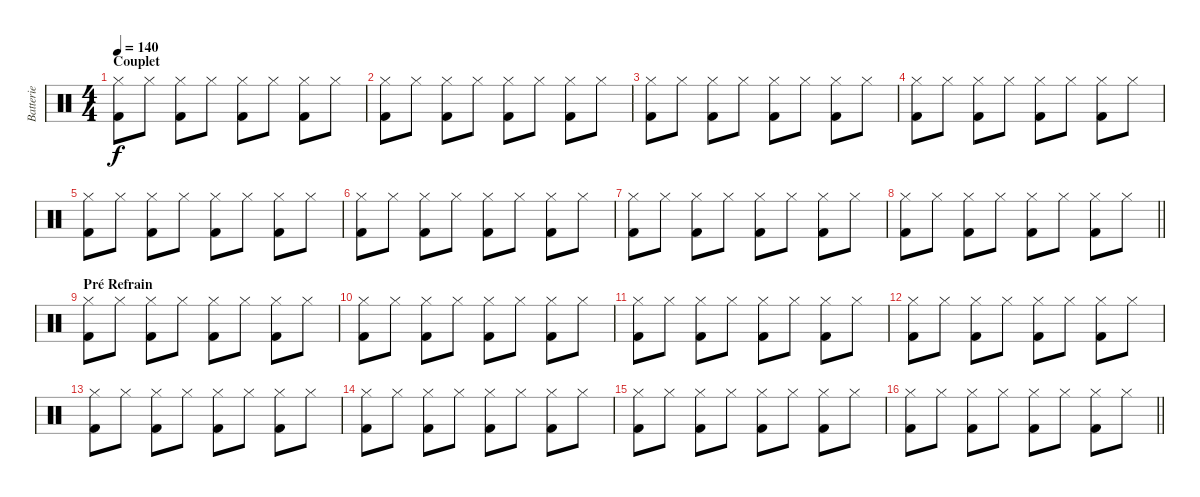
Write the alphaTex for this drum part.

\track ("Batterie" "Batterie") {instrument percussion}
\staff {score}
\articulation defaults
\ts (4 4)
\section ("" "Couplet")
\tempo 140
\clef neutral
\ks c
("Hi-Hat (closed)" "Kick (hit) 2").8{dy f} "Hi-Hat (closed)".8 ("Hi-Hat (closed)" "Kick (hit) 2").8 "Hi-Hat (closed)".8 ("Hi-Hat (closed)" "Kick (hit) 2").8 "Hi-Hat (closed)".8 ("Hi-Hat (closed)" "Kick (hit) 2").8 "Hi-Hat (closed)".8 |
("Hi-Hat (closed)" "Kick (hit) 2").8 "Hi-Hat (closed)".8 ("Hi-Hat (closed)" "Kick (hit) 2").8 "Hi-Hat (closed)".8 ("Hi-Hat (closed)" "Kick (hit) 2").8 "Hi-Hat (closed)".8 ("Hi-Hat (closed)" "Kick (hit) 2").8 "Hi-Hat (closed)".8 |
("Hi-Hat (closed)" "Kick (hit) 2").8 "Hi-Hat (closed)".8 ("Hi-Hat (closed)" "Kick (hit) 2").8 "Hi-Hat (closed)".8 ("Hi-Hat (closed)" "Kick (hit) 2").8 "Hi-Hat (closed)".8 ("Hi-Hat (closed)" "Kick (hit) 2").8 "Hi-Hat (closed)".8 |
("Hi-Hat (closed)" "Kick (hit) 2").8 "Hi-Hat (closed)".8 ("Hi-Hat (closed)" "Kick (hit) 2").8 "Hi-Hat (closed)".8 ("Hi-Hat (closed)" "Kick (hit) 2").8 "Hi-Hat (closed)".8 ("Hi-Hat (closed)" "Kick (hit) 2").8 "Hi-Hat (closed)".8 |
("Hi-Hat (closed)" "Kick (hit) 2").8 "Hi-Hat (closed)".8 ("Hi-Hat (closed)" "Kick (hit) 2").8 "Hi-Hat (closed)".8 ("Hi-Hat (closed)" "Kick (hit) 2").8 "Hi-Hat (closed)".8 ("Hi-Hat (closed)" "Kick (hit) 2").8 "Hi-Hat (closed)".8 |
("Hi-Hat (closed)" "Kick (hit) 2").8 "Hi-Hat (closed)".8 ("Hi-Hat (closed)" "Kick (hit) 2").8 "Hi-Hat (closed)".8 ("Hi-Hat (closed)" "Kick (hit) 2").8 "Hi-Hat (closed)".8 ("Hi-Hat (closed)" "Kick (hit) 2").8 "Hi-Hat (closed)".8 |
("Hi-Hat (closed)" "Kick (hit) 2").8 "Hi-Hat (closed)".8 ("Hi-Hat (closed)" "Kick (hit) 2").8 "Hi-Hat (closed)".8 ("Hi-Hat (closed)" "Kick (hit) 2").8 "Hi-Hat (closed)".8 ("Hi-Hat (closed)" "Kick (hit) 2").8 "Hi-Hat (closed)".8 |
\barLineRight lightlight
("Hi-Hat (closed)" "Kick (hit) 2").8 "Hi-Hat (closed)".8 ("Hi-Hat (closed)" "Kick (hit) 2").8 "Hi-Hat (closed)".8 ("Hi-Hat (closed)" "Kick (hit) 2").8 "Hi-Hat (closed)".8 ("Hi-Hat (closed)" "Kick (hit) 2").8 "Hi-Hat (closed)".8 |
\section ("" "Pré Refrain")
("Hi-Hat (closed)" "Kick (hit) 2").8 "Hi-Hat (closed)".8 ("Hi-Hat (closed)" "Kick (hit) 2").8 "Hi-Hat (closed)".8 ("Hi-Hat (closed)" "Kick (hit) 2").8 "Hi-Hat (closed)".8 ("Hi-Hat (closed)" "Kick (hit) 2").8 "Hi-Hat (closed)".8 |
("Hi-Hat (closed)" "Kick (hit) 2").8 "Hi-Hat (closed)".8 ("Hi-Hat (closed)" "Kick (hit) 2").8 "Hi-Hat (closed)".8 ("Hi-Hat (closed)" "Kick (hit) 2").8 "Hi-Hat (closed)".8 ("Hi-Hat (closed)" "Kick (hit) 2").8 "Hi-Hat (closed)".8 |
("Hi-Hat (closed)" "Kick (hit) 2").8 "Hi-Hat (closed)".8 ("Hi-Hat (closed)" "Kick (hit) 2").8 "Hi-Hat (closed)".8 ("Hi-Hat (closed)" "Kick (hit) 2").8 "Hi-Hat (closed)".8 ("Hi-Hat (closed)" "Kick (hit) 2").8 "Hi-Hat (closed)".8 |
("Hi-Hat (closed)" "Kick (hit) 2").8 "Hi-Hat (closed)".8 ("Hi-Hat (closed)" "Kick (hit) 2").8 "Hi-Hat (closed)".8 ("Hi-Hat (closed)" "Kick (hit) 2").8 "Hi-Hat (closed)".8 ("Hi-Hat (closed)" "Kick (hit) 2").8 "Hi-Hat (closed)".8 |
("Hi-Hat (closed)" "Kick (hit) 2").8 "Hi-Hat (closed)".8 ("Hi-Hat (closed)" "Kick (hit) 2").8 "Hi-Hat (closed)".8 ("Hi-Hat (closed)" "Kick (hit) 2").8 "Hi-Hat (closed)".8 ("Hi-Hat (closed)" "Kick (hit) 2").8 "Hi-Hat (closed)".8 |
("Hi-Hat (closed)" "Kick (hit) 2").8 "Hi-Hat (closed)".8 ("Hi-Hat (closed)" "Kick (hit) 2").8 "Hi-Hat (closed)".8 ("Hi-Hat (closed)" "Kick (hit) 2").8 "Hi-Hat (closed)".8 ("Hi-Hat (closed)" "Kick (hit) 2").8 "Hi-Hat (closed)".8 |
("Hi-Hat (closed)" "Kick (hit) 2").8 "Hi-Hat (closed)".8 ("Hi-Hat (closed)" "Kick (hit) 2").8 "Hi-Hat (closed)".8 ("Hi-Hat (closed)" "Kick (hit) 2").8 "Hi-Hat (closed)".8 ("Hi-Hat (closed)" "Kick (hit) 2").8 "Hi-Hat (closed)".8 |
\barLineRight lightlight
("Hi-Hat (closed)" "Kick (hit) 2").8 "Hi-Hat (closed)".8 ("Hi-Hat (closed)" "Kick (hit) 2").8 "Hi-Hat (closed)".8 ("Hi-Hat (closed)" "Kick (hit) 2").8 "Hi-Hat (closed)".8 ("Hi-Hat (closed)" "Kick (hit) 2").8 "Hi-Hat (closed)".8
